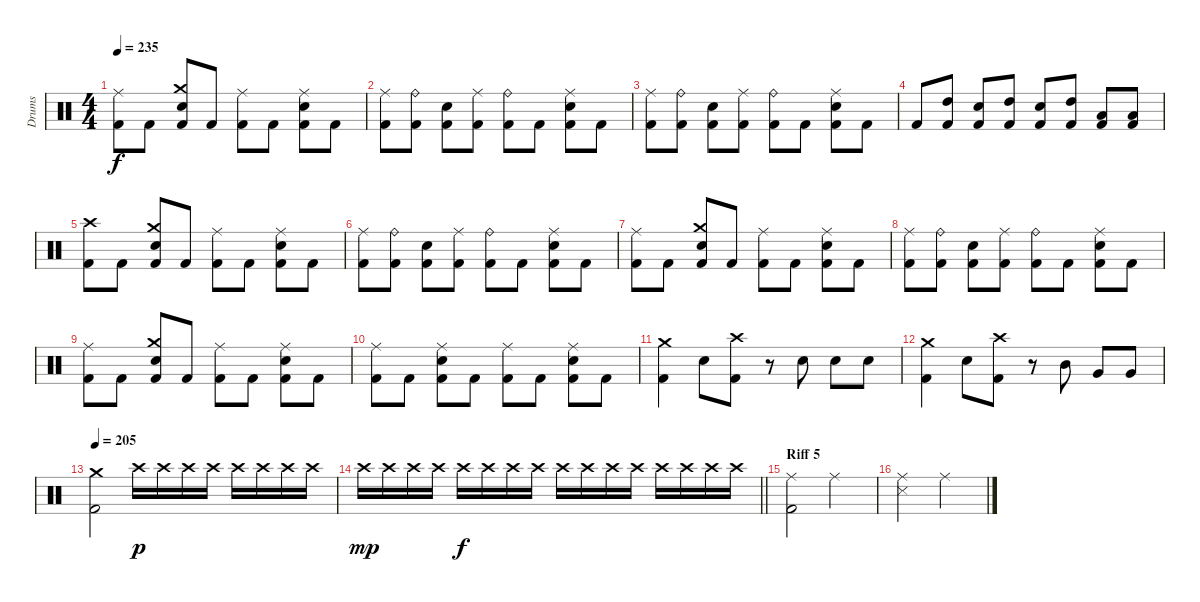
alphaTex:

\track ("Drums" "Drums") {instrument percussion}
\staff {score}
\articulation defaults
\ts (4 4)
\tempo 235
\clef neutral
\ks aminor
("Ride (middle)" "Kick (hit) 2").8{dy f} "Kick (hit) 2".8 ("Crash medium (hit)" "Electric Snare (hit)" "Kick (hit) 2").8 "Kick (hit) 2".8 ("Ride (middle)" "Kick (hit) 2").8 "Kick (hit) 2".8 ("Ride (middle)" "Electric Snare (hit)" "Kick (hit) 2").8 "Kick (hit) 2".8 |
("Kick (hit) 2" "Ride (middle)").8 ("Kick (hit) 2" "Ride (bell)").8 ("Kick (hit) 2" "Electric Snare (hit)").8 ("Kick (hit) 2" "Ride (middle)").8 ("Kick (hit) 2" "Ride (bell)").8 "Kick (hit) 2".8 ("Kick (hit) 2" "Electric Snare (hit)" "Ride (middle)").8 "Kick (hit) 2".8 |
("Kick (hit) 2" "Ride (middle)").8 ("Kick (hit) 2" "Ride (bell)").8 ("Kick (hit) 2" "Electric Snare (hit)").8 ("Kick (hit) 2" "Ride (middle)").8 ("Kick (hit) 2" "Ride (bell)").8 "Kick (hit) 2".8 ("Kick (hit) 2" "Electric Snare (hit)" "Ride (middle)").8 "Kick (hit) 2".8 |
"Kick (hit) 2".8 ("High Tom (hit)" "Kick (hit) 2").8 ("Electric Snare (hit)" "Kick (hit) 2").8 ("High Tom (hit)" "Kick (hit) 2").8 ("Electric Snare (hit)" "Kick (hit) 2").8 ("High Tom (hit)" "Kick (hit) 2").8 ("Low Tom (hit)" "Kick (hit) 2").8 ("Low Tom (hit)" "Kick (hit) 2").8 |
("Kick (hit) 2" "Crash high (hit)").8 "Kick (hit) 2".8 ("Kick (hit) 2" "Crash medium (hit)" "Electric Snare (hit)").8 "Kick (hit) 2".8 ("Kick (hit) 2" "Ride (middle)").8 "Kick (hit) 2".8 ("Kick (hit) 2" "Electric Snare (hit)" "Ride (middle)").8 "Kick (hit) 2".8 |
("Kick (hit) 2" "Ride (middle)").8 ("Kick (hit) 2" "Ride (bell)").8 ("Kick (hit) 2" "Electric Snare (hit)").8 ("Kick (hit) 2" "Ride (middle)").8 ("Kick (hit) 2" "Ride (bell)").8 "Kick (hit) 2".8 ("Kick (hit) 2" "Electric Snare (hit)" "Ride (middle)").8 "Kick (hit) 2".8 |
("Kick (hit) 2" "Ride (middle)").8 "Kick (hit) 2".8 ("Kick (hit) 2" "Crash medium (hit)" "Electric Snare (hit)").8 "Kick (hit) 2".8 ("Kick (hit) 2" "Ride (middle)").8 "Kick (hit) 2".8 ("Kick (hit) 2" "Electric Snare (hit)" "Ride (middle)").8 "Kick (hit) 2".8 |
("Kick (hit) 2" "Ride (middle)").8 ("Kick (hit) 2" "Ride (bell)").8 ("Kick (hit) 2" "Electric Snare (hit)").8 ("Kick (hit) 2" "Ride (middle)").8 ("Kick (hit) 2" "Ride (bell)").8 "Kick (hit) 2".8 ("Kick (hit) 2" "Electric Snare (hit)" "Ride (middle)").8 "Kick (hit) 2".8 |
("Ride (middle)" "Kick (hit) 2").8 "Kick (hit) 2".8 ("Crash medium (hit)" "Electric Snare (hit)" "Kick (hit) 2").8 "Kick (hit) 2".8 ("Ride (middle)" "Kick (hit) 2").8 "Kick (hit) 2".8 ("Ride (middle)" "Electric Snare (hit)" "Kick (hit) 2").8 "Kick (hit) 2".8 |
("Ride (middle)" "Kick (hit) 2").8 "Kick (hit) 2".8 ("Ride (middle)" "Electric Snare (hit)" "Kick (hit) 2").8 "Kick (hit) 2".8 ("Ride (middle)" "Kick (hit) 2").8 "Kick (hit) 2".8 ("Ride (middle)" "Electric Snare (hit)" "Kick (hit) 2").8 "Kick (hit) 2".8 |
("Crash medium (hit)" "Kick (hit) 2").4 "Electric Snare (hit)".8 ("Kick (hit) 2" "Crash high (hit)").8 r.8 "Electric Snare (hit)".8 "Electric Snare (hit)".8 "Electric Snare (hit)".8 |
("Crash medium (hit)" "Kick (hit) 2").4 "Electric Snare (hit)".8 ("Kick (hit) 2" "Crash high (hit)").8 r.8 "Mid Tom (hit)".8 "Very Low Tom (hit)".8 "Very Low Tom (hit)".8 |
\tempo 205
("Kick (hit) 2" "Crash medium (hit)").2 "Crash high (hit)".16{dy p} "Crash high (hit)".16 "Crash high (hit)".16 "Crash high (hit)".16 "Crash high (hit)".16 "Crash high (hit)".16 "Crash high (hit)".16 "Crash high (hit)".16 |
\barLineRight lightlight "Crash high (hit)".16{dy mp} "Crash high (hit)".16 "Crash high (hit)".16 "Crash high (hit)".16 "Crash high (hit)".16{dy f} "Crash high (hit)".16 "Crash high (hit)".16 "Crash high (hit)".16 "Crash high (hit)".16 "Crash high (hit)".16 "Crash high (hit)".16 "Crash high (hit)".16 "Crash high (hit)".16 "Crash high (hit)".16 "Crash high (hit)".16 "Crash high (hit)".16
|
\section ("" "Riff 5")
("Ride (middle)" "Kick (hit) 2").2 "Ride (middle)".2 |
("Ride (middle)" "Snare (side stick) 3").2 "Ride (middle)".2
